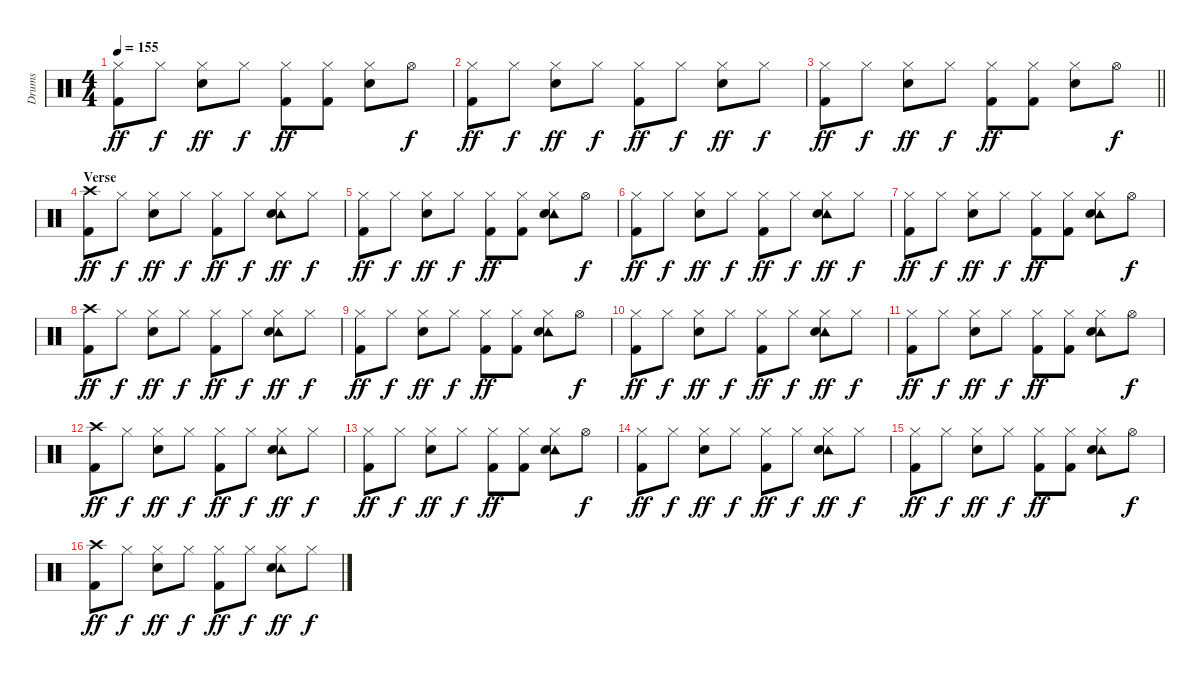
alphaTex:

\track ("Drums" "Drums") {instrument percussion}
\staff {score}
\articulation defaults
\ts (4 4)
\tempo 155
\clef neutral
\ks c
("Hi-Hat (closed)" "Kick (hit) 2").8{dy ff} "Hi-Hat (closed)".8{dy f} ("Hi-Hat (closed)" "Snare (hit) 2").8{dy ff} "Hi-Hat (closed)".8{dy f} ("Hi-Hat (closed)" "Kick (hit) 2").8{dy ff} ("Hi-Hat (closed)" "Kick (hit) 2").8 ("Hi-Hat (closed)" "Snare (hit) 2").8 "Hi-Hat (open)".8{dy f} |
("Hi-Hat (closed)" "Kick (hit) 2").8{dy ff} "Hi-Hat (closed)".8{dy f} ("Hi-Hat (closed)" "Snare (hit) 2").8{dy ff} "Hi-Hat (closed)".8{dy f} ("Hi-Hat (closed)" "Kick (hit) 2").8{dy ff} "Hi-Hat (closed)".8{dy f} ("Hi-Hat (closed)" "Snare (hit) 2").8{dy ff} "Hi-Hat (closed)".8{dy f} |
\barLineRight lightlight
("Hi-Hat (closed)" "Kick (hit) 2").8{dy ff} "Hi-Hat (closed)".8{dy f} ("Hi-Hat (closed)" "Snare (hit) 2").8{dy ff} "Hi-Hat (closed)".8{dy f} ("Hi-Hat (closed)" "Kick (hit) 2").8{dy ff} ("Hi-Hat (closed)" "Kick (hit) 2").8 ("Hi-Hat (closed)" "Snare (hit) 2").8 "Hi-Hat (open)".8{dy f} |
\section ("" "Verse")
("Crash high (hit)" "Kick (hit) 2").8{dy ff} "Hi-Hat (closed)".8{dy f} ("Hi-Hat (closed)" "Snare (hit) 2").8{dy ff} "Hi-Hat (closed)".8{dy f} ("Hi-Hat (closed)" "Kick (hit) 2").8{dy ff} "Hi-Hat (closed)".8{dy f} ("Tambourine (hit)" "Hi-Hat (closed)" "Snare (hit) 2").8{dy ff} "Hi-Hat (closed)".8{dy f} |
("Hi-Hat (closed)" "Kick (hit) 2").8{dy ff} "Hi-Hat (closed)".8{dy f} ("Hi-Hat (closed)" "Snare (hit) 2").8{dy ff} "Hi-Hat (closed)".8{dy f} ("Hi-Hat (closed)" "Kick (hit) 2").8{dy ff} ("Hi-Hat (closed)" "Kick (hit) 2").8 ("Tambourine (hit)" "Hi-Hat (closed)" "Snare (hit) 2").8 "Hi-Hat (open)".8{dy f} |
("Hi-Hat (closed)" "Kick (hit) 2").8{dy ff} "Hi-Hat (closed)".8{dy f} ("Hi-Hat (closed)" "Snare (hit) 2").8{dy ff} "Hi-Hat (closed)".8{dy f} ("Hi-Hat (closed)" "Kick (hit) 2").8{dy ff} "Hi-Hat (closed)".8{dy f} ("Tambourine (hit)" "Hi-Hat (closed)" "Snare (hit) 2").8{dy ff} "Hi-Hat (closed)".8{dy f} |
("Hi-Hat (closed)" "Kick (hit) 2").8{dy ff} "Hi-Hat (closed)".8{dy f} ("Hi-Hat (closed)" "Snare (hit) 2").8{dy ff} "Hi-Hat (closed)".8{dy f} ("Hi-Hat (closed)" "Kick (hit) 2").8{dy ff} ("Hi-Hat (closed)" "Kick (hit) 2").8 ("Tambourine (hit)" "Hi-Hat (closed)" "Snare (hit) 2").8 "Hi-Hat (open)".8{dy f} |
("Crash high (hit)" "Kick (hit) 2").8{dy ff} "Hi-Hat (closed)".8{dy f} ("Hi-Hat (closed)" "Snare (hit) 2").8{dy ff} "Hi-Hat (closed)".8{dy f} ("Hi-Hat (closed)" "Kick (hit) 2").8{dy ff} "Hi-Hat (closed)".8{dy f} ("Tambourine (hit)" "Hi-Hat (closed)" "Snare (hit) 2").8{dy ff} "Hi-Hat (closed)".8{dy f} |
("Hi-Hat (closed)" "Kick (hit) 2").8{dy ff} "Hi-Hat (closed)".8{dy f} ("Hi-Hat (closed)" "Snare (hit) 2").8{dy ff} "Hi-Hat (closed)".8{dy f} ("Hi-Hat (closed)" "Kick (hit) 2").8{dy ff} ("Hi-Hat (closed)" "Kick (hit) 2").8 ("Tambourine (hit)" "Hi-Hat (closed)" "Snare (hit) 2").8 "Hi-Hat (open)".8{dy f} |
("Hi-Hat (closed)" "Kick (hit) 2").8{dy ff} "Hi-Hat (closed)".8{dy f} ("Hi-Hat (closed)" "Snare (hit) 2").8{dy ff} "Hi-Hat (closed)".8{dy f} ("Hi-Hat (closed)" "Kick (hit) 2").8{dy ff} "Hi-Hat (closed)".8{dy f} ("Tambourine (hit)" "Hi-Hat (closed)" "Snare (hit) 2").8{dy ff} "Hi-Hat (closed)".8{dy f} |
("Hi-Hat (closed)" "Kick (hit) 2").8{dy ff} "Hi-Hat (closed)".8{dy f} ("Hi-Hat (closed)" "Snare (hit) 2").8{dy ff} "Hi-Hat (closed)".8{dy f} ("Hi-Hat (closed)" "Kick (hit) 2").8{dy ff} ("Hi-Hat (closed)" "Kick (hit) 2").8 ("Tambourine (hit)" "Hi-Hat (closed)" "Snare (hit) 2").8 "Hi-Hat (open)".8{dy f} |
("Crash high (hit)" "Kick (hit) 2").8{dy ff} "Hi-Hat (closed)".8{dy f} ("Hi-Hat (closed)" "Snare (hit) 2").8{dy ff} "Hi-Hat (closed)".8{dy f} ("Hi-Hat (closed)" "Kick (hit) 2").8{dy ff} "Hi-Hat (closed)".8{dy f} ("Tambourine (hit)" "Hi-Hat (closed)" "Snare (hit) 2").8{dy ff} "Hi-Hat (closed)".8{dy f} |
("Hi-Hat (closed)" "Kick (hit) 2").8{dy ff} "Hi-Hat (closed)".8{dy f} ("Hi-Hat (closed)" "Snare (hit) 2").8{dy ff} "Hi-Hat (closed)".8{dy f} ("Hi-Hat (closed)" "Kick (hit) 2").8{dy ff} ("Hi-Hat (closed)" "Kick (hit) 2").8 ("Tambourine (hit)" "Hi-Hat (closed)" "Snare (hit) 2").8 "Hi-Hat (open)".8{dy f} |
("Hi-Hat (closed)" "Kick (hit) 2").8{dy ff} "Hi-Hat (closed)".8{dy f} ("Hi-Hat (closed)" "Snare (hit) 2").8{dy ff} "Hi-Hat (closed)".8{dy f} ("Hi-Hat (closed)" "Kick (hit) 2").8{dy ff} "Hi-Hat (closed)".8{dy f} ("Tambourine (hit)" "Hi-Hat (closed)" "Snare (hit) 2").8{dy ff} "Hi-Hat (closed)".8{dy f} |
("Hi-Hat (closed)" "Kick (hit) 2").8{dy ff} "Hi-Hat (closed)".8{dy f} ("Hi-Hat (closed)" "Snare (hit) 2").8{dy ff} "Hi-Hat (closed)".8{dy f} ("Hi-Hat (closed)" "Kick (hit) 2").8{dy ff} ("Hi-Hat (closed)" "Kick (hit) 2").8 ("Tambourine (hit)" "Hi-Hat (closed)" "Snare (hit) 2").8 "Hi-Hat (open)".8{dy f} |
("Crash high (hit)" "Kick (hit) 2").8{dy ff} "Hi-Hat (closed)".8{dy f} ("Hi-Hat (closed)" "Snare (hit) 2").8{dy ff} "Hi-Hat (closed)".8{dy f} ("Hi-Hat (closed)" "Kick (hit) 2").8{dy ff} "Hi-Hat (closed)".8{dy f} ("Tambourine (hit)" "Hi-Hat (closed)" "Snare (hit) 2").8{dy ff} "Hi-Hat (closed)".8{dy f}
